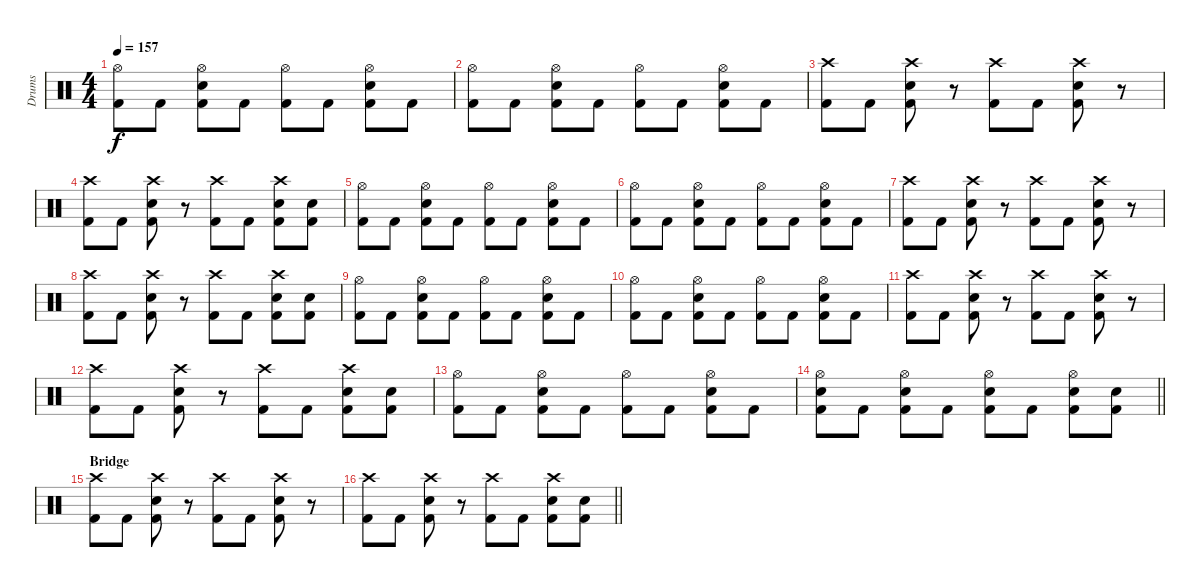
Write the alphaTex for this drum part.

\track ("Drums" "Drums") {instrument percussion}
\staff {score}
\articulation defaults
\ts (4 4)
\tempo 157
\clef neutral
\ks c
("Hi-Hat (open)" "Kick (hit) 2").8{dy f} "Kick (hit) 2".8 ("Hi-Hat (open)" "Electric Snare (hit)" "Kick (hit) 2").8 "Kick (hit) 2".8 ("Hi-Hat (open)" "Kick (hit) 2").8 "Kick (hit) 2".8 ("Hi-Hat (open)" "Kick (hit) 2" "Electric Snare (hit)").8 "Kick (hit) 2".8 |
("Hi-Hat (open)" "Kick (hit) 2").8 "Kick (hit) 2".8 ("Hi-Hat (open)" "Electric Snare (hit)" "Kick (hit) 2").8 "Kick (hit) 2".8 ("Hi-Hat (open)" "Kick (hit) 2").8 "Kick (hit) 2".8 ("Hi-Hat (open)" "Kick (hit) 2" "Electric Snare (hit)").8 "Kick (hit) 2".8 |
("Crash high (hit)" "Kick (hit) 2").8 "Kick (hit) 2".8 ("Crash high (hit)" "Electric Snare (hit)" "Kick (hit) 2").8 r.8 ("Crash high (hit)" "Kick (hit) 2").8 "Kick (hit) 2".8 ("Crash high (hit)" "Electric Snare (hit)" "Kick (hit) 2").8 r.8 |
("Crash high (hit)" "Kick (hit) 2").8 "Kick (hit) 2".8 ("Crash high (hit)" "Electric Snare (hit)" "Kick (hit) 2").8 r.8 ("Crash high (hit)" "Kick (hit) 2").8 "Kick (hit) 2".8 ("Crash high (hit)" "Electric Snare (hit)" "Kick (hit) 2").8 ("Electric Snare (hit)" "Kick (hit) 2").8 |
("Hi-Hat (open)" "Kick (hit) 2").8 "Kick (hit) 2".8 ("Hi-Hat (open)" "Electric Snare (hit)" "Kick (hit) 2").8 "Kick (hit) 2".8 ("Hi-Hat (open)" "Kick (hit) 2").8 "Kick (hit) 2".8 ("Hi-Hat (open)" "Kick (hit) 2" "Electric Snare (hit)").8 "Kick (hit) 2".8 |
("Hi-Hat (open)" "Kick (hit) 2").8 "Kick (hit) 2".8 ("Hi-Hat (open)" "Electric Snare (hit)" "Kick (hit) 2").8 "Kick (hit) 2".8 ("Hi-Hat (open)" "Kick (hit) 2").8 "Kick (hit) 2".8 ("Hi-Hat (open)" "Kick (hit) 2" "Electric Snare (hit)").8 "Kick (hit) 2".8 |
("Crash high (hit)" "Kick (hit) 2").8 "Kick (hit) 2".8 ("Crash high (hit)" "Electric Snare (hit)" "Kick (hit) 2").8 r.8 ("Crash high (hit)" "Kick (hit) 2").8 "Kick (hit) 2".8 ("Crash high (hit)" "Electric Snare (hit)" "Kick (hit) 2").8 r.8 |
("Crash high (hit)" "Kick (hit) 2").8 "Kick (hit) 2".8 ("Crash high (hit)" "Electric Snare (hit)" "Kick (hit) 2").8 r.8 ("Crash high (hit)" "Kick (hit) 2").8 "Kick (hit) 2".8 ("Crash high (hit)" "Electric Snare (hit)" "Kick (hit) 2").8 ("Electric Snare (hit)" "Kick (hit) 2").8 |
("Hi-Hat (open)" "Kick (hit) 2").8 "Kick (hit) 2".8 ("Hi-Hat (open)" "Electric Snare (hit)" "Kick (hit) 2").8 "Kick (hit) 2".8 ("Hi-Hat (open)" "Kick (hit) 2").8 "Kick (hit) 2".8 ("Hi-Hat (open)" "Kick (hit) 2" "Electric Snare (hit)").8 "Kick (hit) 2".8 |
("Hi-Hat (open)" "Kick (hit) 2").8 "Kick (hit) 2".8 ("Hi-Hat (open)" "Electric Snare (hit)" "Kick (hit) 2").8 "Kick (hit) 2".8 ("Hi-Hat (open)" "Kick (hit) 2").8 "Kick (hit) 2".8 ("Hi-Hat (open)" "Kick (hit) 2" "Electric Snare (hit)").8 "Kick (hit) 2".8 |
("Crash high (hit)" "Kick (hit) 2").8 "Kick (hit) 2".8 ("Crash high (hit)" "Electric Snare (hit)" "Kick (hit) 2").8 r.8 ("Crash high (hit)" "Kick (hit) 2").8 "Kick (hit) 2".8 ("Crash high (hit)" "Electric Snare (hit)" "Kick (hit) 2").8 r.8 |
("Crash high (hit)" "Kick (hit) 2").8 "Kick (hit) 2".8 ("Crash high (hit)" "Electric Snare (hit)" "Kick (hit) 2").8 r.8 ("Crash high (hit)" "Kick (hit) 2").8 "Kick (hit) 2".8 ("Crash high (hit)" "Electric Snare (hit)" "Kick (hit) 2").8 ("Electric Snare (hit)" "Kick (hit) 2").8 |
("Hi-Hat (open)" "Kick (hit) 2").8 "Kick (hit) 2".8 ("Hi-Hat (open)" "Electric Snare (hit)" "Kick (hit) 2").8 "Kick (hit) 2".8 ("Hi-Hat (open)" "Kick (hit) 2").8 "Kick (hit) 2".8 ("Hi-Hat (open)" "Kick (hit) 2" "Electric Snare (hit)").8 "Kick (hit) 2".8 |
\barLineRight lightlight
("Hi-Hat (open)" "Electric Snare (hit)" "Kick (hit) 2").8 "Kick (hit) 2".8 ("Hi-Hat (open)" "Electric Snare (hit)" "Kick (hit) 2").8 "Kick (hit) 2".8 ("Hi-Hat (open)" "Electric Snare (hit)" "Kick (hit) 2").8 "Kick (hit) 2".8 ("Hi-Hat (open)" "Kick (hit) 2" "Electric Snare (hit)").8 ("Electric Snare (hit)" "Kick (hit) 2").8 |
\section ("" "Bridge")
("Crash high (hit)" "Kick (hit) 2").8 "Kick (hit) 2".8 ("Crash high (hit)" "Electric Snare (hit)" "Kick (hit) 2").8 r.8 ("Crash high (hit)" "Kick (hit) 2").8 "Kick (hit) 2".8 ("Crash high (hit)" "Electric Snare (hit)" "Kick (hit) 2").8 r.8 |
\barLineRight lightlight
("Crash high (hit)" "Kick (hit) 2").8 "Kick (hit) 2".8 ("Crash high (hit)" "Electric Snare (hit)" "Kick (hit) 2").8 r.8 ("Crash high (hit)" "Kick (hit) 2").8 "Kick (hit) 2".8 ("Crash high (hit)" "Electric Snare (hit)" "Kick (hit) 2").8 ("Electric Snare (hit)" "Kick (hit) 2").8
